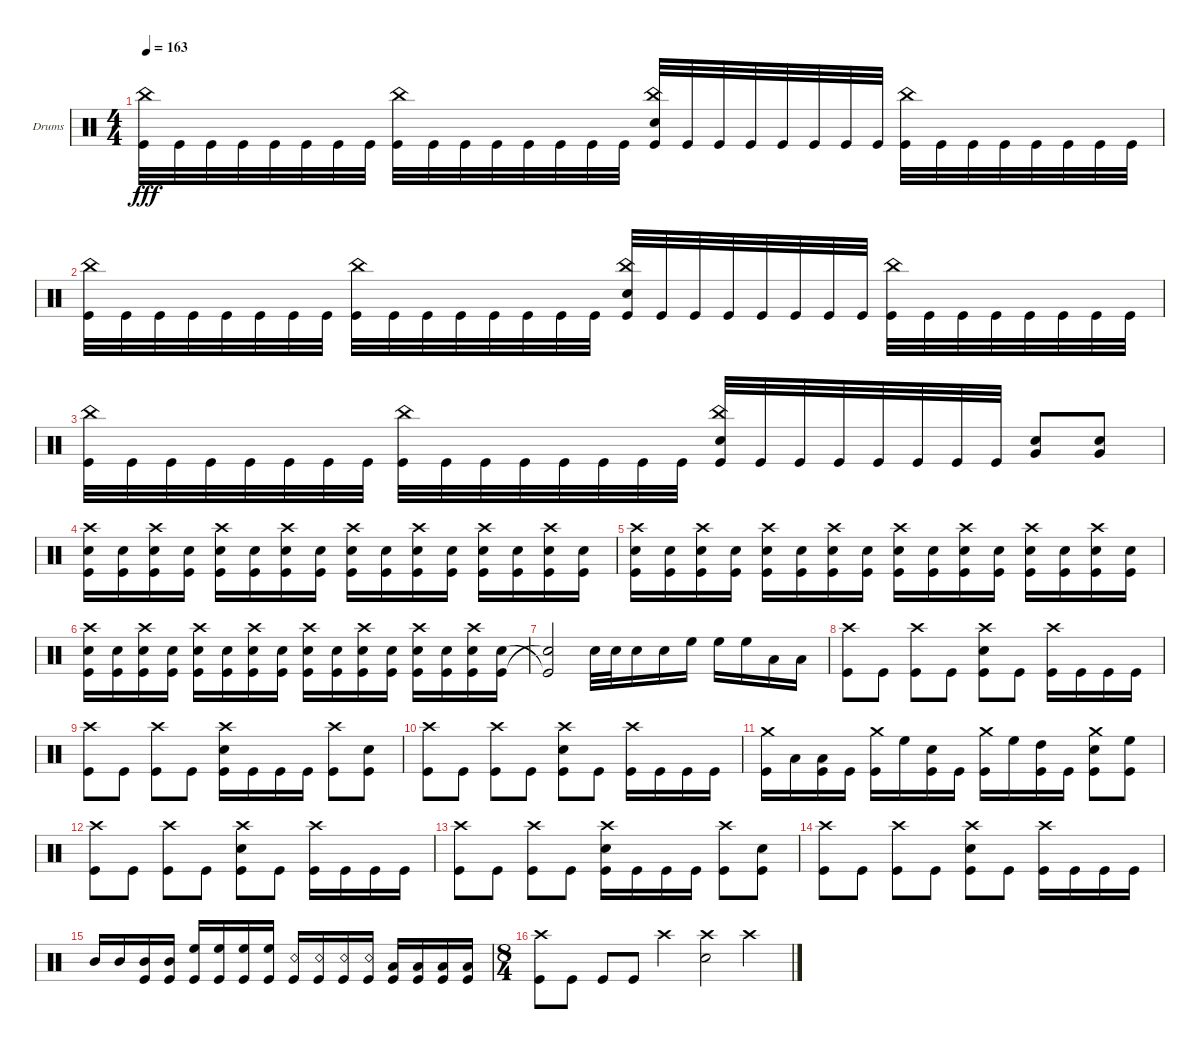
\defaultSystemsLayout 4
\bracketExtendMode groupsimilarinstruments
\firstSystemTrackNameOrientation horizontal
\otherSystemsTrackNameOrientation horizontal
\track ("Drumkit" "Drums") {instrument percussion}
\staff {score}
\articulation defaults
\ts (4 4)
\tempo 163
\clef neutral
\ks c
("Kick (hit)" "China (hit)").32{dy fff} "Kick (hit)".32 "Kick (hit)".32 "Kick (hit)".32 "Kick (hit)".32 "Kick (hit)".32 "Kick (hit)".32 "Kick (hit)".32 ("Kick (hit)" "China (hit)").32 "Kick (hit)".32 "Kick (hit)".32 "Kick (hit)".32 "Kick (hit)".32 "Kick (hit)".32 "Kick (hit)".32 "Kick (hit)".32 ("Kick (hit)" "China (hit)" "Snare (hit) 2").32 "Kick (hit)".32 "Kick (hit)".32 "Kick (hit)".32 "Kick (hit)".32 "Kick (hit)".32 "Kick (hit)".32 "Kick (hit)".32 ("Kick (hit)" "China (hit)").32 "Kick (hit)".32 "Kick (hit)".32 "Kick (hit)".32 "Kick (hit)".32 "Kick (hit)".32 "Kick (hit)".32 "Kick (hit)".32 |
("Kick (hit)" "China (hit)").32 "Kick (hit)".32 "Kick (hit)".32 "Kick (hit)".32 "Kick (hit)".32 "Kick (hit)".32 "Kick (hit)".32 "Kick (hit)".32 ("Kick (hit)" "China (hit)").32 "Kick (hit)".32 "Kick (hit)".32 "Kick (hit)".32 "Kick (hit)".32 "Kick (hit)".32 "Kick (hit)".32 "Kick (hit)".32 ("Kick (hit)" "China (hit)" "Snare (hit) 2").32 "Kick (hit)".32 "Kick (hit)".32 "Kick (hit)".32 "Kick (hit)".32 "Kick (hit)".32 "Kick (hit)".32 "Kick (hit)".32 ("Kick (hit)" "China (hit)").32 "Kick (hit)".32 "Kick (hit)".32 "Kick (hit)".32 "Kick (hit)".32 "Kick (hit)".32 "Kick (hit)".32 "Kick (hit)".32 |
("Kick (hit)" "China (hit)").32 "Kick (hit)".32 "Kick (hit)".32 "Kick (hit)".32 "Kick (hit)".32 "Kick (hit)".32 "Kick (hit)".32 "Kick (hit)".32 ("Kick (hit)" "China (hit)").32 "Kick (hit)".32 "Kick (hit)".32 "Kick (hit)".32 "Kick (hit)".32 "Kick (hit)".32 "Kick (hit)".32 "Kick (hit)".32 ("Kick (hit)" "China (hit)" "Snare (hit) 2").32 "Kick (hit)".32 "Kick (hit)".32 "Kick (hit)".32 "Kick (hit)".32 "Kick (hit)".32 "Kick (hit)".32 "Kick (hit)".32 ("Snare (hit) 2" "Very Low Tom (hit)").8 ("Snare (hit) 2" "Very Low Tom (hit)").8 |
("Kick (hit)" "Snare (hit) 2" "Crash high (hit)").16 ("Snare (hit) 2" "Kick (hit)").16 ("Snare (hit) 2" "Kick (hit)" "Crash high (hit)").16 ("Snare (hit) 2" "Kick (hit)").16 ("Snare (hit) 2" "Kick (hit)" "Crash high (hit)").16 ("Snare (hit) 2" "Kick (hit)").16 ("Snare (hit) 2" "Kick (hit)" "Crash high (hit)").16 ("Snare (hit) 2" "Kick (hit)").16 ("Snare (hit) 2" "Kick (hit)" "Crash high (hit)").16 ("Snare (hit) 2" "Kick (hit)").16 ("Snare (hit) 2" "Kick (hit)" "Crash high (hit)").16 ("Snare (hit) 2" "Kick (hit)").16 ("Snare (hit) 2" "Kick (hit)" "Crash high (hit)").16 ("Snare (hit) 2" "Kick (hit)").16 ("Snare (hit) 2" "Kick (hit)" "Crash high (hit)").16 ("Snare (hit) 2" "Kick (hit)").16 |
("Kick (hit)" "Snare (hit) 2" "Crash high (hit)").16 ("Snare (hit) 2" "Kick (hit)").16 ("Snare (hit) 2" "Kick (hit)" "Crash high (hit)").16 ("Snare (hit) 2" "Kick (hit)").16 ("Snare (hit) 2" "Kick (hit)" "Crash high (hit)").16 ("Snare (hit) 2" "Kick (hit)").16 ("Snare (hit) 2" "Kick (hit)" "Crash high (hit)").16 ("Snare (hit) 2" "Kick (hit)").16 ("Snare (hit) 2" "Kick (hit)" "Crash high (hit)").16 ("Snare (hit) 2" "Kick (hit)").16 ("Snare (hit) 2" "Kick (hit)" "Crash high (hit)").16 ("Snare (hit) 2" "Kick (hit)").16 ("Snare (hit) 2" "Kick (hit)" "Crash high (hit)").16 ("Snare (hit) 2" "Kick (hit)").16 ("Snare (hit) 2" "Kick (hit)" "Crash high (hit)").16 ("Snare (hit) 2" "Kick (hit)").16 |
("Kick (hit)" "Snare (hit) 2" "Crash high (hit)").16 ("Snare (hit) 2" "Kick (hit)").16 ("Snare (hit) 2" "Kick (hit)" "Crash high (hit)").16 ("Snare (hit) 2" "Kick (hit)").16 ("Snare (hit) 2" "Kick (hit)" "Crash high (hit)").16 ("Snare (hit) 2" "Kick (hit)").16 ("Snare (hit) 2" "Kick (hit)" "Crash high (hit)").16 ("Snare (hit) 2" "Kick (hit)").16 ("Snare (hit) 2" "Kick (hit)" "Crash high (hit)").16 ("Snare (hit) 2" "Kick (hit)").16 ("Snare (hit) 2" "Kick (hit)" "Crash high (hit)").16 ("Snare (hit) 2" "Kick (hit)").16 ("Snare (hit) 2" "Kick (hit)" "Crash high (hit)").16 ("Snare (hit) 2" "Kick (hit)").16 ("Snare (hit) 2" "Kick (hit)" "Crash high (hit)").16 ("Snare (hit) 2" "Kick (hit)").16 |
("Kick (hit)"{t} "Snare (hit) 2"{t}).2 "Snare (hit) 2".32 "Snare (hit) 2".32 "Snare (hit) 2".16 "Snare (hit) 2".16 "High Floor Tom (hit)".16 "High Floor Tom (hit)".16 "High Floor Tom (hit)".16 "Low Tom (hit)".16 "Low Tom (hit)".16 |
("Kick (hit)" "Crash high (hit)").8 "Kick (hit)".8 ("Kick (hit)" "Crash high (hit)").8 "Kick (hit)".8 ("Kick (hit)" "Snare (hit) 2" "Crash high (hit)").8 "Kick (hit)".8 ("Kick (hit)" "Crash high (hit)").16 "Kick (hit)".16 "Kick (hit)".16 "Kick (hit)".16 |
("Kick (hit)" "Crash high (hit)").8 "Kick (hit)".8 ("Kick (hit)" "Crash high (hit)").8 "Kick (hit)".8 ("Kick (hit)" "Snare (hit) 2" "Crash high (hit)").16 "Kick (hit)".16 "Kick (hit)".16 "Kick (hit)".16 ("Kick (hit)" "Crash high (hit)").8 ("Kick (hit)" "Snare (hit) 2").8 |
("Kick (hit)" "Crash high (hit)").8 "Kick (hit)".8 ("Kick (hit)" "Crash high (hit)").8 "Kick (hit)".8 ("Kick (hit)" "Snare (hit) 2" "Crash high (hit)").8 "Kick (hit)".8 ("Kick (hit)" "Crash high (hit)").16 "Kick (hit)".16 "Kick (hit)".16 "Kick (hit)".16 |
("Crash medium (hit)" "Kick (hit)").16 "Low Tom (hit)".16 ("Kick (hit)" "Low Tom (hit)").16 "Kick (hit)".16 ("Kick (hit)" "Crash medium (hit)").16 "High Floor Tom (hit)".16 ("Kick (hit)" "Snare (hit) 2").16 "Kick (hit)".16 ("Kick (hit)" "Crash medium (hit)").16 "High Floor Tom (hit)".16 ("High Tom (hit)" "Kick (hit)").16 "Kick (hit)".16 ("Kick (hit)" "Crash medium (hit)" "Snare (hit) 2").8 ("Kick (hit)" "High Floor Tom (hit)").8 |
("Kick (hit)" "Crash high (hit)").8 "Kick (hit)".8 ("Kick (hit)" "Crash high (hit)").8 "Kick (hit)".8 ("Kick (hit)" "Snare (hit) 2" "Crash high (hit)").8 "Kick (hit)".8 ("Kick (hit)" "Crash high (hit)").16 "Kick (hit)".16 "Kick (hit)".16 "Kick (hit)".16 |
("Kick (hit)" "Crash high (hit)").8 "Kick (hit)".8 ("Kick (hit)" "Crash high (hit)").8 "Kick (hit)".8 ("Kick (hit)" "Snare (hit) 2" "Crash high (hit)").16 "Kick (hit)".16 "Kick (hit)".16 "Kick (hit)".16 ("Kick (hit)" "Crash high (hit)").8 ("Kick (hit)" "Snare (hit) 2").8 |
("Kick (hit)" "Crash high (hit)").8 "Kick (hit)".8 ("Kick (hit)" "Crash high (hit)").8 "Kick (hit)".8 ("Kick (hit)" "Snare (hit) 2" "Crash high (hit)").8 "Kick (hit)".8 ("Kick (hit)" "Crash high (hit)").16 "Kick (hit)".16 "Kick (hit)".16 "Kick (hit)".16 |
"Mid Tom (hit)".16 "Mid Tom (hit)".16 ("Kick (hit)" "Mid Tom (hit)").16 ("Kick (hit)" "Mid Tom (hit)").16 ("Kick (hit)" "High Floor Tom (hit)").16 ("Kick (hit)" "High Floor Tom (hit)").16 ("Kick (hit)" "High Floor Tom (hit)").16 ("Kick (hit)" "High Floor Tom (hit)").16 ("Kick (hit)" "Snare (rim shot)").16 ("Kick (hit)" "Snare (rim shot)").16 ("Kick (hit)" "Snare (rim shot)").16 ("Kick (hit)" "Snare (rim shot)").16 ("Kick (hit)" "Low Tom (hit)").16 ("Kick (hit)" "Low Tom (hit)").16 ("Kick (hit)" "Low Tom (hit)").16 ("Kick (hit)" "Low Tom (hit)").16 |
\ts (8 4)
\beaming (8 2 2 2 2 2 2 2 2)
("Kick (hit)" "Crash high (hit)").8 "Kick (hit)".8 "Kick (hit)".8 "Kick (hit)".8 "Crash high (hit)".2 ("Crash high (hit)" "Snare (hit) 2").2 "Crash high (hit)".2
